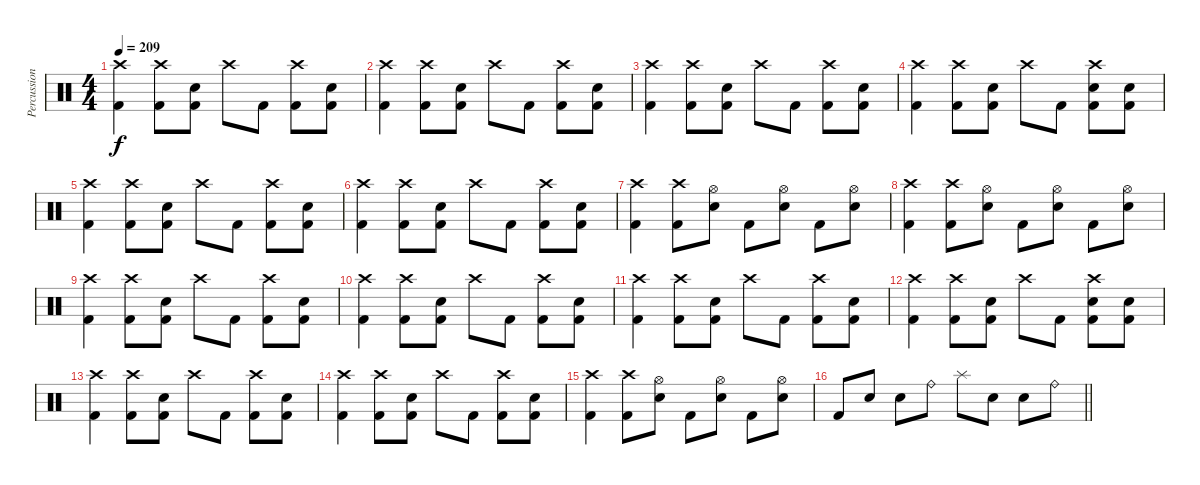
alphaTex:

\track ("Percussion" "Percussion") {instrument percussion}
\staff {score}
\articulation defaults
\ts (4 4)
\section ("" "")
\tempo 209
\clef neutral
\ks c
("Crash high (hit)" "Kick (hit) 2").4{dy f} ("Crash high (hit)" "Kick (hit) 2").8 ("Electric Snare (hit)" "Kick (hit) 2").8 "Crash high (hit)".8 "Kick (hit) 2".8 ("Crash high (hit)" "Kick (hit) 2").8 ("Electric Snare (hit)" "Kick (hit) 2").8 |
("Crash high (hit)" "Kick (hit) 2").4 ("Crash high (hit)" "Kick (hit) 2").8 ("Electric Snare (hit)" "Kick (hit) 2").8 "Crash high (hit)".8 "Kick (hit) 2".8 ("Crash high (hit)" "Kick (hit) 2").8 ("Electric Snare (hit)" "Kick (hit) 2").8 |
("Crash high (hit)" "Kick (hit) 2").4 ("Crash high (hit)" "Kick (hit) 2").8 ("Electric Snare (hit)" "Kick (hit) 2").8 "Crash high (hit)".8 "Kick (hit) 2".8 ("Crash high (hit)" "Kick (hit) 2").8 ("Electric Snare (hit)" "Kick (hit) 2").8 |
("Crash high (hit)" "Kick (hit) 2").4 ("Crash high (hit)" "Kick (hit) 2").8 ("Electric Snare (hit)" "Kick (hit) 2").8 "Crash high (hit)".8 "Kick (hit) 2".8 ("Crash high (hit)" "Electric Snare (hit)" "Kick (hit) 2").8 ("Electric Snare (hit)" "Kick (hit) 2").8 |
("Crash high (hit)" "Kick (hit) 2").4 ("Crash high (hit)" "Kick (hit) 2").8 ("Electric Snare (hit)" "Kick (hit) 2").8 "Crash high (hit)".8 "Kick (hit) 2".8 ("Crash high (hit)" "Kick (hit) 2").8 ("Electric Snare (hit)" "Kick (hit) 2").8 |
("Crash high (hit)" "Kick (hit) 2").4 ("Crash high (hit)" "Kick (hit) 2").8 ("Electric Snare (hit)" "Kick (hit) 2").8 "Crash high (hit)".8 "Kick (hit) 2".8 ("Crash high (hit)" "Kick (hit) 2").8 ("Electric Snare (hit)" "Kick (hit) 2").8 |
("Crash high (hit)" "Kick (hit) 2").4 ("Crash high (hit)" "Kick (hit) 2").8 ("Hi-Hat (open)" "Electric Snare (hit)").8 "Kick (hit) 2".8 ("Hi-Hat (open)" "Electric Snare (hit)").8 "Kick (hit) 2".8 ("Hi-Hat (open)" "Electric Snare (hit)").8 |
("Crash high (hit)" "Kick (hit) 2").4 ("Crash high (hit)" "Kick (hit) 2").8 ("Hi-Hat (open)" "Electric Snare (hit)").8 "Kick (hit) 2".8 ("Hi-Hat (open)" "Electric Snare (hit)").8 "Kick (hit) 2".8 ("Hi-Hat (open)" "Electric Snare (hit)").8 |
("Crash high (hit)" "Kick (hit) 2").4 ("Crash high (hit)" "Kick (hit) 2").8 ("Electric Snare (hit)" "Kick (hit) 2").8 "Crash high (hit)".8 "Kick (hit) 2".8 ("Crash high (hit)" "Kick (hit) 2").8 ("Electric Snare (hit)" "Kick (hit) 2").8 |
("Crash high (hit)" "Kick (hit) 2").4 ("Crash high (hit)" "Kick (hit) 2").8 ("Electric Snare (hit)" "Kick (hit) 2").8 "Crash high (hit)".8 "Kick (hit) 2".8 ("Crash high (hit)" "Kick (hit) 2").8 ("Electric Snare (hit)" "Kick (hit) 2").8 |
("Crash high (hit)" "Kick (hit) 2").4 ("Crash high (hit)" "Kick (hit) 2").8 ("Electric Snare (hit)" "Kick (hit) 2").8 "Crash high (hit)".8 "Kick (hit) 2".8 ("Crash high (hit)" "Kick (hit) 2").8 ("Electric Snare (hit)" "Kick (hit) 2").8 |
("Crash high (hit)" "Kick (hit) 2").4 ("Crash high (hit)" "Kick (hit) 2").8 ("Electric Snare (hit)" "Kick (hit) 2").8 "Crash high (hit)".8 "Kick (hit) 2".8 ("Crash high (hit)" "Electric Snare (hit)" "Kick (hit) 2").8 ("Electric Snare (hit)" "Kick (hit) 2").8 |
("Crash high (hit)" "Kick (hit) 2").4 ("Crash high (hit)" "Kick (hit) 2").8 ("Electric Snare (hit)" "Kick (hit) 2").8 "Crash high (hit)".8 "Kick (hit) 2".8 ("Crash high (hit)" "Kick (hit) 2").8 ("Electric Snare (hit)" "Kick (hit) 2").8 |
("Crash high (hit)" "Kick (hit) 2").4 ("Crash high (hit)" "Kick (hit) 2").8 ("Electric Snare (hit)" "Kick (hit) 2").8 "Crash high (hit)".8 "Kick (hit) 2".8 ("Crash high (hit)" "Kick (hit) 2").8 ("Electric Snare (hit)" "Kick (hit) 2").8 |
("Crash high (hit)" "Kick (hit) 2").4 ("Crash high (hit)" "Kick (hit) 2").8 ("Hi-Hat (open)" "Electric Snare (hit)").8 "Kick (hit) 2".8 ("Hi-Hat (open)" "Electric Snare (hit)").8 "Kick (hit) 2".8 ("Hi-Hat (open)" "Electric Snare (hit)").8 |
\barLineRight lightlight "Kick (hit) 2".8 "Electric Snare (hit)".8 "Electric Snare (hit)".8 "Ride (bell)".8 "Splash (hit)".8 "Electric Snare (hit)".8 "Electric Snare (hit)".8 "Ride (bell)".8
